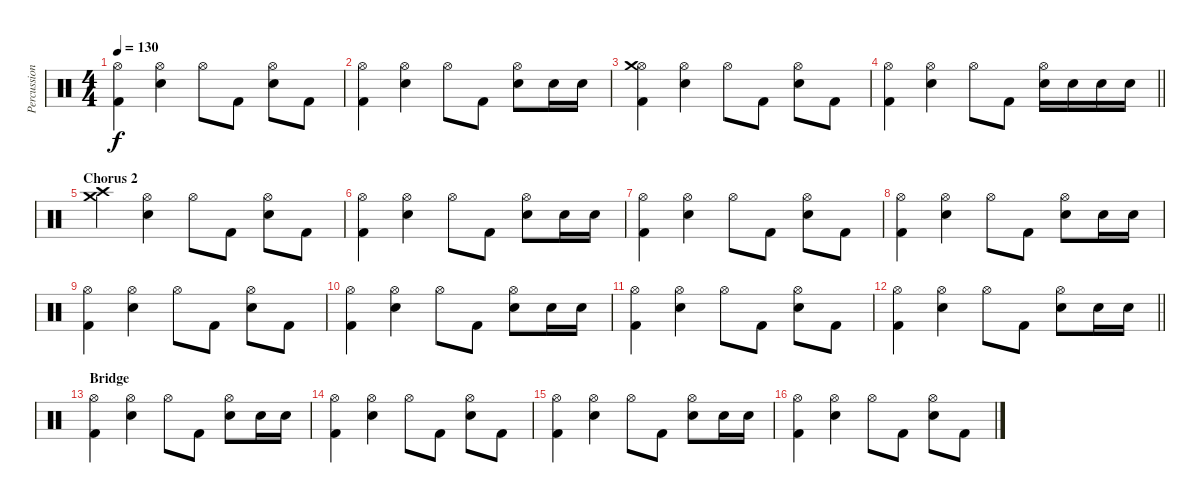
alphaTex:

\track ("Percussion" "Percussion") {instrument percussion}
\staff {score}
\articulation defaults
\ts (4 4)
\tempo 130
\clef neutral
\ks c
("Hi-Hat (open)" "Kick (hit) 2").4{dy f} ("Hi-Hat (open)" "Electric Snare (hit)").4 "Hi-Hat (open)".8 "Kick (hit) 2".8 ("Hi-Hat (open)" "Electric Snare (hit)").8 "Kick (hit) 2".8 |
("Hi-Hat (open)" "Kick (hit) 2").4 ("Hi-Hat (open)" "Electric Snare (hit)").4 "Hi-Hat (open)".8 "Kick (hit) 2".8 ("Hi-Hat (open)" "Electric Snare (hit)").8 "Electric Snare (hit)".16 "Electric Snare (hit)".16 |
("Hi-Hat (open)" "Crash medium (hit)" "Kick (hit) 2").4 ("Hi-Hat (open)" "Electric Snare (hit)").4 "Hi-Hat (open)".8 "Kick (hit) 2".8 ("Hi-Hat (open)" "Electric Snare (hit)").8 "Kick (hit) 2".8 |
\barLineRight lightlight
("Hi-Hat (open)" "Kick (hit) 2").4 ("Hi-Hat (open)" "Electric Snare (hit)").4 "Hi-Hat (open)".8 "Kick (hit) 2".8 ("Hi-Hat (open)" "Electric Snare (hit)").16 "Electric Snare (hit)".16 "Electric Snare (hit)".16 "Electric Snare (hit)".16 |
\section ("" "Chorus 2")
("Crash medium (hit)" "Crash high (hit)").4 ("Hi-Hat (open)" "Electric Snare (hit)").4 "Hi-Hat (open)".8 "Kick (hit) 2".8 ("Hi-Hat (open)" "Electric Snare (hit)").8 "Kick (hit) 2".8 |
("Hi-Hat (open)" "Kick (hit) 2").4 ("Hi-Hat (open)" "Electric Snare (hit)").4 "Hi-Hat (open)".8 "Kick (hit) 2".8 ("Hi-Hat (open)" "Electric Snare (hit)").8 "Electric Snare (hit)".16 "Electric Snare (hit)".16 |
("Hi-Hat (open)" "Kick (hit) 2").4 ("Hi-Hat (open)" "Electric Snare (hit)").4 "Hi-Hat (open)".8 "Kick (hit) 2".8 ("Hi-Hat (open)" "Electric Snare (hit)").8 "Kick (hit) 2".8 |
("Hi-Hat (open)" "Kick (hit) 2").4 ("Hi-Hat (open)" "Electric Snare (hit)").4 "Hi-Hat (open)".8 "Kick (hit) 2".8 ("Hi-Hat (open)" "Electric Snare (hit)").8 "Electric Snare (hit)".16 "Electric Snare (hit)".16 |
("Hi-Hat (open)" "Kick (hit) 2").4 ("Hi-Hat (open)" "Electric Snare (hit)").4 "Hi-Hat (open)".8 "Kick (hit) 2".8 ("Hi-Hat (open)" "Electric Snare (hit)").8 "Kick (hit) 2".8 |
("Hi-Hat (open)" "Kick (hit) 2").4 ("Hi-Hat (open)" "Electric Snare (hit)").4 "Hi-Hat (open)".8 "Kick (hit) 2".8 ("Hi-Hat (open)" "Electric Snare (hit)").8 "Electric Snare (hit)".16 "Electric Snare (hit)".16 |
("Hi-Hat (open)" "Kick (hit) 2").4 ("Hi-Hat (open)" "Electric Snare (hit)").4 "Hi-Hat (open)".8 "Kick (hit) 2".8 ("Hi-Hat (open)" "Electric Snare (hit)").8 "Kick (hit) 2".8 |
\barLineRight lightlight
("Hi-Hat (open)" "Kick (hit) 2").4 ("Hi-Hat (open)" "Electric Snare (hit)").4 "Hi-Hat (open)".8 "Kick (hit) 2".8 ("Hi-Hat (open)" "Electric Snare (hit)").8 "Electric Snare (hit)".16 "Electric Snare (hit)".16 |
\section ("" "Bridge")
("Hi-Hat (open)" "Kick (hit) 2").4 ("Hi-Hat (open)" "Electric Snare (hit)").4 "Hi-Hat (open)".8 "Kick (hit) 2".8 ("Hi-Hat (open)" "Electric Snare (hit)").8 "Electric Snare (hit)".16 "Electric Snare (hit)".16 |
("Hi-Hat (open)" "Kick (hit) 2").4 ("Hi-Hat (open)" "Electric Snare (hit)").4 "Hi-Hat (open)".8 "Kick (hit) 2".8 ("Hi-Hat (open)" "Electric Snare (hit)").8 "Kick (hit) 2".8 |
("Hi-Hat (open)" "Kick (hit) 2").4 ("Hi-Hat (open)" "Electric Snare (hit)").4 "Hi-Hat (open)".8 "Kick (hit) 2".8 ("Hi-Hat (open)" "Electric Snare (hit)").8 "Electric Snare (hit)".16 "Electric Snare (hit)".16 |
("Hi-Hat (open)" "Kick (hit) 2").4 ("Hi-Hat (open)" "Electric Snare (hit)").4 "Hi-Hat (open)".8 "Kick (hit) 2".8 ("Hi-Hat (open)" "Electric Snare (hit)").8 "Kick (hit) 2".8
